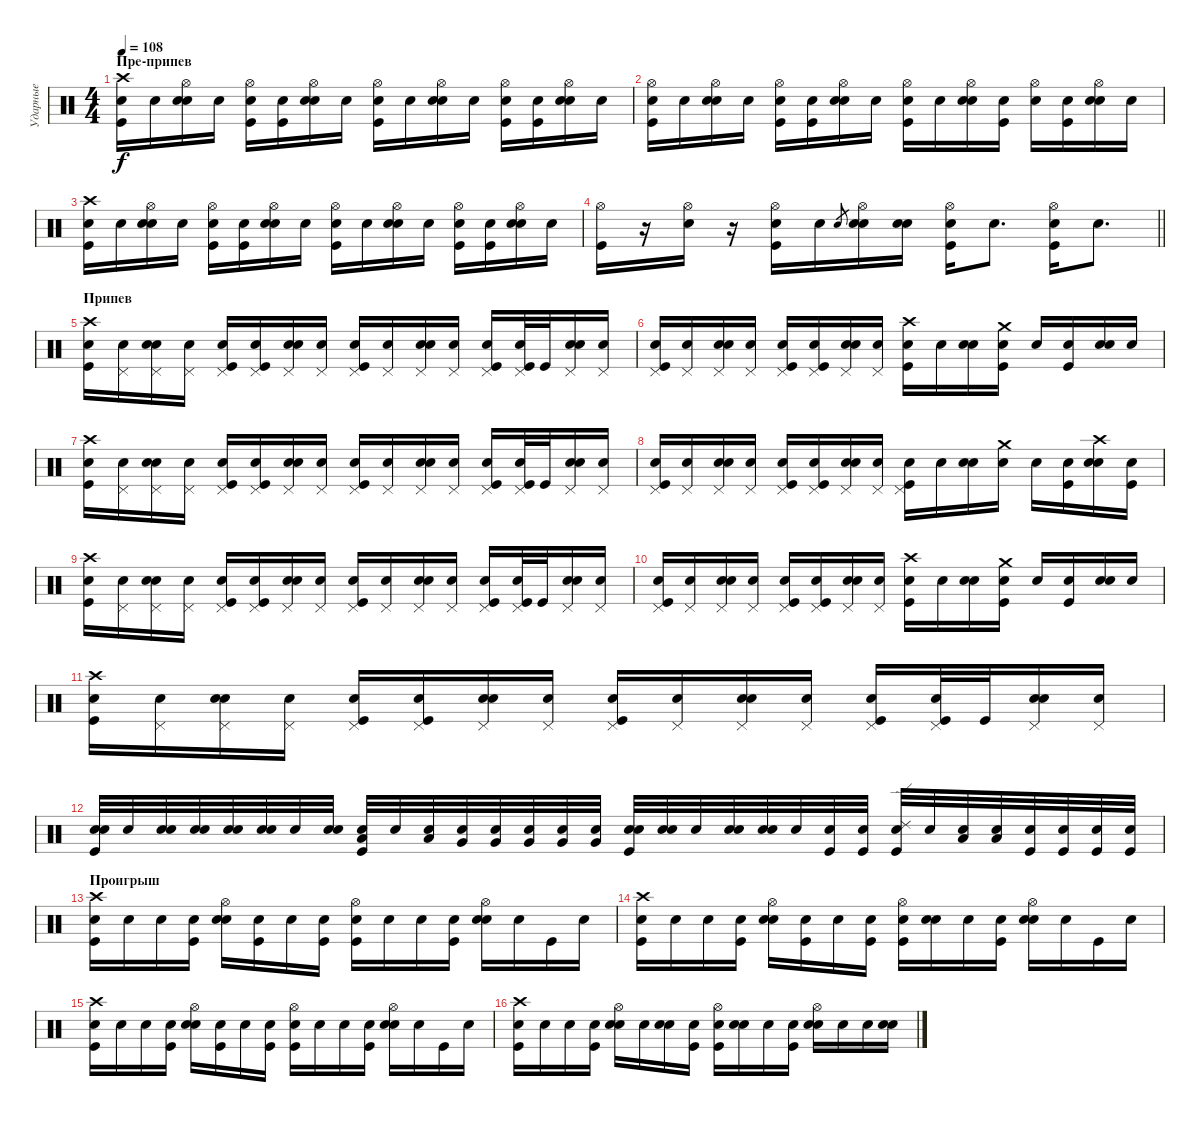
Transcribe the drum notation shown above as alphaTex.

\track ("Ударные" "Ударные") {instrument percussion}
\staff {score}
\articulation defaults
\ts (4 4)
\section ("" "Пре-припев")
\tempo 108
\clef neutral
\ks c
("Crash high (hit)" "Kick (hit)" "Snare (hit)"{x}).16{dy f} "Snare (hit)"{x}.16 ("Snare (hit) 2" "Hi-Hat (open)" "Snare (hit)"{x}).16 "Snare (hit)"{x}.16 ("Kick (hit)" "Hi-Hat (open)" "Snare (hit)"{x}).16 ("Kick (hit)" "Snare (hit)"{x}).16 ("Snare (hit) 2" "Hi-Hat (open)" "Snare (hit)"{x}).16 "Snare (hit)"{x}.16 ("Kick (hit)" "Hi-Hat (open)" "Snare (hit)"{x}).16 "Snare (hit)"{x}.16 ("Snare (hit) 2" "Hi-Hat (open)" "Snare (hit)"{x}).16 "Snare (hit)"{x}.16 ("Kick (hit)" "Hi-Hat (open)" "Snare (hit)"{x}).16 ("Kick (hit)" "Snare (hit)"{x}).16 ("Snare (hit) 2" "Hi-Hat (open)" "Snare (hit)"{x}).16 "Snare (hit)"{x}.16 |
("Hi-Hat (open)" "Kick (hit)" "Snare (hit)"{x}).16 "Snare (hit)"{x}.16 ("Snare (hit) 2" "Hi-Hat (open)" "Snare (hit)"{x}).16 "Snare (hit)"{x}.16 ("Kick (hit)" "Hi-Hat (open)" "Snare (hit)"{x}).16 ("Kick (hit)" "Snare (hit)"{x}).16 ("Snare (hit) 2" "Hi-Hat (open)" "Snare (hit)"{x}).16 "Snare (hit)"{x}.16 ("Kick (hit)" "Hi-Hat (open)" "Snare (hit)"{x}).16 "Snare (hit)"{x}.16 ("Snare (hit) 2" "Hi-Hat (open)" "Snare (hit)"{x}).16 ("Kick (hit)" "Snare (hit)"{x}).16 ("Hi-Hat (open)" "Snare (hit)"{x}).16 ("Kick (hit)" "Snare (hit)"{x}).16 ("Snare (hit) 2" "Hi-Hat (open)" "Snare (hit)"{x}).16 "Snare (hit)"{x}.16 |
("Crash high (hit)" "Kick (hit)" "Snare (hit)"{x}).16 "Snare (hit)"{x}.16 ("Snare (hit) 2" "Hi-Hat (open)" "Snare (hit)"{x}).16 "Snare (hit)"{x}.16 ("Kick (hit)" "Hi-Hat (open)" "Snare (hit)"{x}).16 ("Kick (hit)" "Snare (hit)"{x}).16 ("Snare (hit) 2" "Hi-Hat (open)" "Snare (hit)"{x}).16 "Snare (hit)"{x}.16 ("Kick (hit)" "Hi-Hat (open)" "Snare (hit)"{x}).16 "Snare (hit)"{x}.16 ("Snare (hit) 2" "Hi-Hat (open)" "Snare (hit)"{x}).16 "Snare (hit)"{x}.16 ("Kick (hit)" "Hi-Hat (open)" "Snare (hit)"{x}).16 ("Kick (hit)" "Snare (hit)"{x}).16 ("Snare (hit) 2" "Hi-Hat (open)" "Snare (hit)"{x}).16 "Snare (hit)"{x}.16 |
\barLineRight lightlight
("Kick (hit)" "Hi-Hat (open)").16 r.16 ("Snare (hit) 2" "Hi-Hat (open)").16 r.16 ("Hi-Hat (open)" "Kick (hit)" "Snare (hit)"{x}).16 "Snare (hit)"{x}.16 "Electric Snare (hit)".8{gr} ("Electric Snare (hit)" "Hi-Hat (open)" "Snare (hit)"{x}).16 ("Electric Snare (hit)" "Snare (hit)"{x}).16 ("Kick (hit)" "Hi-Hat (open)" "Snare (hit)"{x}).16 "Snare (hit)"{x}.8{d} ("Kick (hit)" "Hi-Hat (open)" "Snare (hit)"{x}).16 "Snare (hit)"{x}.8{d} |
\section ("" "Припев")
("Crash high (hit)" "Kick (hit)" "Snare (hit)"{x}).16 ("Pedal Hi-Hat (hit)" "Snare (hit)"{x}).16 ("Snare (hit) 2" "Pedal Hi-Hat (hit)" "Snare (hit)"{x}).16 ("Pedal Hi-Hat (hit)" "Snare (hit)"{x}).16 ("Kick (hit)" "Pedal Hi-Hat (hit)" "Snare (hit)"{x}).16 ("Kick (hit)" "Pedal Hi-Hat (hit)" "Snare (hit)"{x}).16 ("Snare (hit) 2" "Pedal Hi-Hat (hit)" "Snare (hit)"{x}).16 ("Pedal Hi-Hat (hit)" "Snare (hit)"{x}).16 ("Kick (hit)" "Pedal Hi-Hat (hit)" "Snare (hit)"{x}).16 ("Pedal Hi-Hat (hit)" "Snare (hit)"{x}).16 ("Snare (hit) 2" "Pedal Hi-Hat (hit)" "Snare (hit)"{x}).16 ("Pedal Hi-Hat (hit)" "Snare (hit)"{x}).16 ("Kick (hit)" "Pedal Hi-Hat (hit)" "Snare (hit)"{x}).16 ("Kick (hit)" "Pedal Hi-Hat (hit)" "Snare (hit)"{x}).32 "Kick (hit)".32 ("Snare (hit) 2" "Pedal Hi-Hat (hit)" "Snare (hit)"{x}).16 ("Pedal Hi-Hat (hit)" "Snare (hit)"{x}).16 |
("Kick (hit)" "Pedal Hi-Hat (hit)" "Snare (hit)"{x}).16 ("Pedal Hi-Hat (hit)" "Snare (hit)"{x}).16 ("Snare (hit) 2" "Pedal Hi-Hat (hit)" "Snare (hit)"{x}).16 ("Pedal Hi-Hat (hit)" "Snare (hit)"{x}).16 ("Kick (hit)" "Pedal Hi-Hat (hit)" "Snare (hit)"{x}).16 ("Kick (hit)" "Pedal Hi-Hat (hit)" "Snare (hit)"{x}).16 ("Snare (hit) 2" "Pedal Hi-Hat (hit)" "Snare (hit)"{x}).16 ("Pedal Hi-Hat (hit)" "Snare (hit)"{x}).16 ("Kick (hit)" "Crash high (hit)" "Snare (hit)"{x}).16 "Snare (hit)"{x}.16 ("Electric Snare (hit)" "Snare (hit)"{x}).16 ("Kick (hit)" "Crash medium (hit)" "Snare (hit)"{x}).16 "Snare (hit)"{x}.16 ("Kick (hit)" "Snare (hit)"{x}).16 ("Electric Snare (hit)" "Snare (hit)"{x}).16 "Snare (hit)"{x}.16 |
("Crash high (hit)" "Kick (hit)" "Snare (hit)"{x}).16 ("Pedal Hi-Hat (hit)" "Snare (hit)"{x}).16 ("Snare (hit) 2" "Pedal Hi-Hat (hit)" "Snare (hit)"{x}).16 ("Pedal Hi-Hat (hit)" "Snare (hit)"{x}).16 ("Kick (hit)" "Pedal Hi-Hat (hit)" "Snare (hit)"{x}).16 ("Kick (hit)" "Pedal Hi-Hat (hit)" "Snare (hit)"{x}).16 ("Snare (hit) 2" "Pedal Hi-Hat (hit)" "Snare (hit)"{x}).16 ("Pedal Hi-Hat (hit)" "Snare (hit)"{x}).16 ("Kick (hit)" "Pedal Hi-Hat (hit)" "Snare (hit)"{x}).16 ("Pedal Hi-Hat (hit)" "Snare (hit)"{x}).16 ("Snare (hit) 2" "Pedal Hi-Hat (hit)" "Snare (hit)"{x}).16 ("Pedal Hi-Hat (hit)" "Snare (hit)"{x}).16 ("Kick (hit)" "Pedal Hi-Hat (hit)" "Snare (hit)"{x}).16 ("Kick (hit)" "Pedal Hi-Hat (hit)" "Snare (hit)"{x}).32 "Kick (hit)".32 ("Snare (hit) 2" "Pedal Hi-Hat (hit)" "Snare (hit)"{x}).16 ("Pedal Hi-Hat (hit)" "Snare (hit)"{x}).16 |
("Kick (hit)" "Pedal Hi-Hat (hit)" "Snare (hit)"{x}).16 ("Pedal Hi-Hat (hit)" "Snare (hit)"{x}).16 ("Snare (hit) 2" "Pedal Hi-Hat (hit)" "Snare (hit)"{x}).16 ("Pedal Hi-Hat (hit)" "Snare (hit)"{x}).16 ("Kick (hit)" "Pedal Hi-Hat (hit)" "Snare (hit)"{x}).16 ("Kick (hit)" "Pedal Hi-Hat (hit)" "Snare (hit)"{x}).16 ("Snare (hit) 2" "Pedal Hi-Hat (hit)" "Snare (hit)"{x}).16 ("Pedal Hi-Hat (hit)" "Snare (hit)"{x}).16 ("Kick (hit)" "Pedal Hi-Hat (hit)" "Snare (hit)"{x}).16 "Snare (hit)"{x}.16 ("Electric Snare (hit)" "Snare (hit)"{x}).16 ("Crash medium (hit)" "Snare (hit)"{x}).16 "Snare (hit)"{x}.16 ("Kick (hit)" "Snare (hit)"{x}).16 ("Electric Snare (hit)" "Crash high (hit)" "Snare (hit)"{x}).16 ("Kick (hit)" "Snare (hit)"{x}).16 |
("Crash high (hit)" "Kick (hit)" "Snare (hit)"{x}).16 ("Pedal Hi-Hat (hit)" "Snare (hit)"{x}).16 ("Snare (hit) 2" "Pedal Hi-Hat (hit)" "Snare (hit)"{x}).16 ("Pedal Hi-Hat (hit)" "Snare (hit)"{x}).16 ("Kick (hit)" "Pedal Hi-Hat (hit)" "Snare (hit)"{x}).16 ("Kick (hit)" "Pedal Hi-Hat (hit)" "Snare (hit)"{x}).16 ("Snare (hit) 2" "Pedal Hi-Hat (hit)" "Snare (hit)"{x}).16 ("Pedal Hi-Hat (hit)" "Snare (hit)"{x}).16 ("Kick (hit)" "Pedal Hi-Hat (hit)" "Snare (hit)"{x}).16 ("Pedal Hi-Hat (hit)" "Snare (hit)"{x}).16 ("Snare (hit) 2" "Pedal Hi-Hat (hit)" "Snare (hit)"{x}).16 ("Pedal Hi-Hat (hit)" "Snare (hit)"{x}).16 ("Kick (hit)" "Pedal Hi-Hat (hit)" "Snare (hit)"{x}).16 ("Kick (hit)" "Pedal Hi-Hat (hit)" "Snare (hit)"{x}).32 "Kick (hit)".32 ("Snare (hit) 2" "Pedal Hi-Hat (hit)" "Snare (hit)"{x}).16 ("Pedal Hi-Hat (hit)" "Snare (hit)"{x}).16 |
("Kick (hit)" "Pedal Hi-Hat (hit)" "Snare (hit)"{x}).16 ("Pedal Hi-Hat (hit)" "Snare (hit)"{x}).16 ("Snare (hit) 2" "Pedal Hi-Hat (hit)" "Snare (hit)"{x}).16 ("Pedal Hi-Hat (hit)" "Snare (hit)"{x}).16 ("Kick (hit)" "Pedal Hi-Hat (hit)" "Snare (hit)"{x}).16 ("Kick (hit)" "Pedal Hi-Hat (hit)" "Snare (hit)"{x}).16 ("Snare (hit) 2" "Pedal Hi-Hat (hit)" "Snare (hit)"{x}).16 ("Pedal Hi-Hat (hit)" "Snare (hit)"{x}).16 ("Kick (hit)" "Crash high (hit)" "Snare (hit)"{x}).16 "Snare (hit)"{x}.16 ("Electric Snare (hit)" "Snare (hit)"{x}).16 ("Kick (hit)" "Crash medium (hit)" "Snare (hit)"{x}).16 "Snare (hit)"{x}.16 ("Kick (hit)" "Snare (hit)"{x}).16 ("Electric Snare (hit)" "Snare (hit)"{x}).16 "Snare (hit)"{x}.16 |
("Crash high (hit)" "Kick (hit)" "Snare (hit)"{x}).16 ("Pedal Hi-Hat (hit)" "Snare (hit)"{x}).16 ("Snare (hit) 2" "Pedal Hi-Hat (hit)" "Snare (hit)"{x}).16 ("Pedal Hi-Hat (hit)" "Snare (hit)"{x}).16 ("Kick (hit)" "Pedal Hi-Hat (hit)" "Snare (hit)"{x}).16 ("Kick (hit)" "Pedal Hi-Hat (hit)" "Snare (hit)"{x}).16 ("Snare (hit) 2" "Pedal Hi-Hat (hit)" "Snare (hit)"{x}).16 ("Pedal Hi-Hat (hit)" "Snare (hit)"{x}).16 ("Kick (hit)" "Pedal Hi-Hat (hit)" "Snare (hit)"{x}).16 ("Pedal Hi-Hat (hit)" "Snare (hit)"{x}).16 ("Snare (hit) 2" "Pedal Hi-Hat (hit)" "Snare (hit)"{x}).16 ("Pedal Hi-Hat (hit)" "Snare (hit)"{x}).16 ("Kick (hit)" "Pedal Hi-Hat (hit)" "Snare (hit)"{x}).16 ("Kick (hit)" "Pedal Hi-Hat (hit)" "Snare (hit)"{x}).32 "Kick (hit)".32 ("Snare (hit) 2" "Pedal Hi-Hat (hit)" "Snare (hit)"{x}).16 ("Pedal Hi-Hat (hit)" "Snare (hit)"{x}).16 |
("Electric Snare (hit)" "Kick (hit)" "Snare (hit)"{x}).32 "Snare (hit)"{x}.32 ("Electric Snare (hit)" "Snare (hit)"{x}).32 ("Electric Snare (hit)" "Snare (hit)"{x}).32 ("Electric Snare (hit)" "Snare (hit)"{x}).32 ("Electric Snare (hit)" "Snare (hit)"{x}).32 "Snare (hit)"{x}.32 ("Electric Snare (hit)" "Snare (hit)"{x}).32 ("Low Tom (hit)" "Kick (hit)" "Snare (hit)"{x}).32 "Snare (hit)"{x}.32 ("Low Tom (hit)" "Snare (hit)"{x}).32 ("Very Low Tom (hit)" "Snare (hit)"{x}).32 ("Very Low Tom (hit)" "Snare (hit)"{x}).32 ("Very Low Tom (hit)" "Snare (hit)"{x}).32 ("Very Low Tom (hit)" "Snare (hit)"{x}).32 ("Very Low Tom (hit)" "Snare (hit)"{x}).32 ("Electric Snare (hit)" "Kick (hit)" "Snare (hit)"{x}).32 ("Electric Snare (hit)" "Snare (hit)"{x}).32 "Snare (hit)"{x}.32 ("Electric Snare (hit)" "Snare (hit)"{x}).32 ("Electric Snare (hit)" "Snare (hit)"{x}).32 "Snare (hit)"{x}.32 ("Kick (hit)" "Snare (hit)"{x}).32 ("Kick (hit)" "Snare (hit)"{x}).32 ("Kick (hit)" "Ride (edge) 2" "Snare (hit)"{x}).32 "Snare (hit)"{x}.32 ("Low Tom (hit)" "Snare (hit)"{x}).32 ("Low Tom (hit)" "Snare (hit)"{x}).32 ("Kick (hit)" "Snare (hit)"{x}).32 ("Kick (hit)" "Snare (hit)"{x}).32 ("Kick (hit)" "Snare (hit)"{x}).32 ("Kick (hit)" "Snare (hit)"{x}).32 |
\section ("" "Проигрыш")
("Crash high (hit)" "Kick (hit)" "Snare (hit)"{x}).16 "Snare (hit)"{x}.16 "Snare (hit)"{x}.16 ("Kick (hit)" "Snare (hit)"{x}).16 ("Snare (hit) 2" "Hi-Hat (open)" "Snare (hit)"{x}).16 ("Kick (hit)" "Snare (hit)"{x}).16 "Snare (hit)"{x}.16 ("Kick (hit)" "Snare (hit)"{x}).16 ("Kick (hit)" "Hi-Hat (open)" "Snare (hit)"{x}).16 "Snare (hit)"{x}.16 "Snare (hit)"{x}.16 ("Kick (hit)" "Snare (hit)"{x}).16 ("Snare (hit) 2" "Hi-Hat (open)" "Snare (hit)"{x}).16 "Snare (hit)"{x}.16 "Kick (hit)".16 "Snare (hit)"{x}.16 |
("Crash high (hit)" "Kick (hit)" "Snare (hit)"{x}).16 "Snare (hit)"{x}.16 "Snare (hit)"{x}.16 ("Kick (hit)" "Snare (hit)"{x}).16 ("Snare (hit) 2" "Hi-Hat (open)" "Snare (hit)"{x}).16 ("Kick (hit)" "Snare (hit)"{x}).16 "Snare (hit)"{x}.16 ("Kick (hit)" "Snare (hit)"{x}).16 ("Kick (hit)" "Hi-Hat (open)" "Snare (hit)"{x}).16 ("Snare (hit) 2" "Snare (hit)"{x}).16 "Snare (hit)"{x}.16 ("Kick (hit)" "Snare (hit)"{x}).16 ("Snare (hit) 2" "Hi-Hat (open)" "Snare (hit)"{x}).16 "Snare (hit)"{x}.16 "Kick (hit)".16 "Snare (hit)"{x}.16 |
("Crash high (hit)" "Kick (hit)" "Snare (hit)"{x}).16 "Snare (hit)"{x}.16 "Snare (hit)"{x}.16 ("Kick (hit)" "Snare (hit)"{x}).16 ("Snare (hit) 2" "Hi-Hat (open)" "Snare (hit)"{x}).16 ("Kick (hit)" "Snare (hit)"{x}).16 "Snare (hit)"{x}.16 ("Kick (hit)" "Snare (hit)"{x}).16 ("Kick (hit)" "Hi-Hat (open)" "Snare (hit)"{x}).16 "Snare (hit)"{x}.16 "Snare (hit)"{x}.16 ("Kick (hit)" "Snare (hit)"{x}).16 ("Snare (hit) 2" "Hi-Hat (open)" "Snare (hit)"{x}).16 "Snare (hit)"{x}.16 "Kick (hit)".16 "Snare (hit)"{x}.16 |
("Crash high (hit)" "Kick (hit)" "Snare (hit)"{x}).16 "Snare (hit)"{x}.16 "Snare (hit)"{x}.16 ("Kick (hit)" "Snare (hit)"{x}).16 ("Snare (hit) 2" "Hi-Hat (open)" "Snare (hit)"{x}).16 "Snare (hit)"{x}.16 ("Snare (hit) 2" "Snare (hit)"{x}).16 ("Kick (hit)" "Snare (hit)"{x}).16 ("Kick (hit)" "Hi-Hat (open)" "Snare (hit)"{x}).16 ("Snare (hit) 2" "Snare (hit)"{x}).16 "Snare (hit)"{x}.16 ("Kick (hit)" "Snare (hit)"{x}).16 ("Snare (hit) 2" "Hi-Hat (open)" "Snare (hit)"{x}).16 "Snare (hit)"{x}.16 "Snare (hit) 2".16 ("Snare (hit) 2" "Snare (hit)"{x}).16
